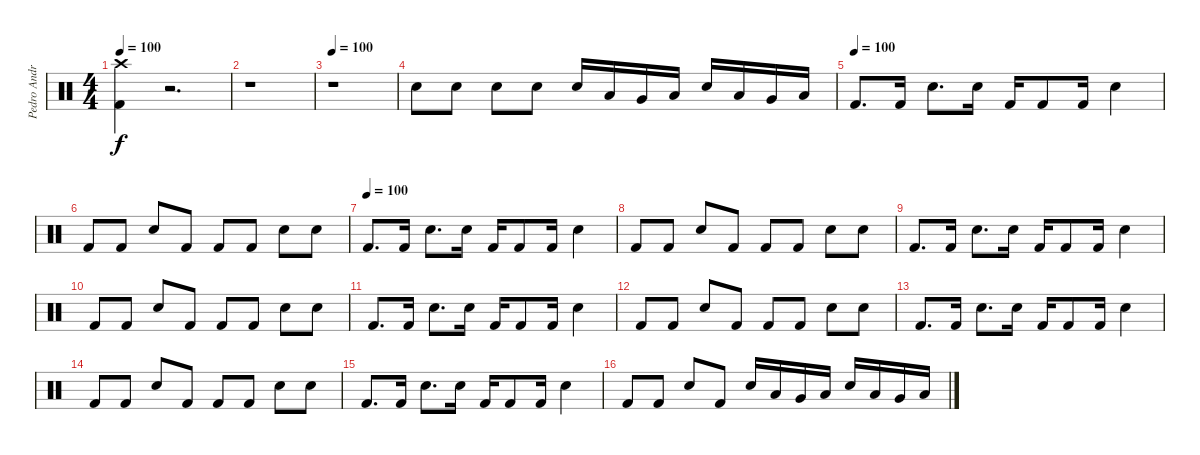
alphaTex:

\track ("Pedro Andreu" "Pedro Andr") {instrument percussion}
\staff {score}
\articulation defaults
\ts (4 4)
\tempo 100
\clef neutral
\ks c
("Crash high (hit)" "Kick (hit) 2").4{dy f} r.2{d} |
r.1 |
\tempo 100
r.1 |
"Snare (hit) 2".8 "Snare (hit) 2".8 "Snare (hit) 2".8 "Snare (hit) 2".8 "Snare (hit) 2".16 "Low Tom (hit)".16 "Very Low Tom (hit)".16 "Low Floor Tom (hit)".16 "Snare (hit) 2".16 "Low Tom (hit)".16 "Very Low Tom (hit)".16 "Low Floor Tom (hit)".16 |
\tempo (100)
"Kick (hit) 2".8{d} "Kick (hit) 2".16 "Snare (hit) 2".8{d} "Snare (hit) 2".16 "Kick (hit) 2".16 "Kick (hit) 2".8 "Kick (hit) 2".16 "Snare (hit) 2".4 |
"Kick (hit) 2".8 "Kick (hit) 2".8 "Snare (hit) 2".8 "Kick (hit) 2".8 "Kick (hit) 2".8 "Kick (hit) 2".8 "Snare (hit) 2".8 "Snare (hit) 2".8 |
\tempo (100)
"Kick (hit) 2".8{d} "Kick (hit) 2".16 "Snare (hit) 2".8{d} "Snare (hit) 2".16 "Kick (hit) 2".16 "Kick (hit) 2".8 "Kick (hit) 2".16 "Snare (hit) 2".4 |
"Kick (hit) 2".8 "Kick (hit) 2".8 "Snare (hit) 2".8 "Kick (hit) 2".8 "Kick (hit) 2".8 "Kick (hit) 2".8 "Snare (hit) 2".8 "Snare (hit) 2".8 |
"Kick (hit) 2".8{d} "Kick (hit) 2".16 "Snare (hit) 2".8{d} "Snare (hit) 2".16 "Kick (hit) 2".16 "Kick (hit) 2".8 "Kick (hit) 2".16 "Snare (hit) 2".4 |
"Kick (hit) 2".8 "Kick (hit) 2".8 "Snare (hit) 2".8 "Kick (hit) 2".8 "Kick (hit) 2".8 "Kick (hit) 2".8 "Snare (hit) 2".8 "Snare (hit) 2".8 |
"Kick (hit) 2".8{d} "Kick (hit) 2".16 "Snare (hit) 2".8{d} "Snare (hit) 2".16 "Kick (hit) 2".16 "Kick (hit) 2".8 "Kick (hit) 2".16 "Snare (hit) 2".4 |
"Kick (hit) 2".8 "Kick (hit) 2".8 "Snare (hit) 2".8 "Kick (hit) 2".8 "Kick (hit) 2".8 "Kick (hit) 2".8 "Snare (hit) 2".8 "Snare (hit) 2".8 |
"Kick (hit) 2".8{d} "Kick (hit) 2".16 "Snare (hit) 2".8{d} "Snare (hit) 2".16 "Kick (hit) 2".16 "Kick (hit) 2".8 "Kick (hit) 2".16 "Snare (hit) 2".4 |
"Kick (hit) 2".8 "Kick (hit) 2".8 "Snare (hit) 2".8 "Kick (hit) 2".8 "Kick (hit) 2".8 "Kick (hit) 2".8 "Snare (hit) 2".8 "Snare (hit) 2".8 |
"Kick (hit) 2".8{d} "Kick (hit) 2".16 "Snare (hit) 2".8{d} "Snare (hit) 2".16 "Kick (hit) 2".16 "Kick (hit) 2".8 "Kick (hit) 2".16 "Snare (hit) 2".4 |
"Kick (hit) 2".8 "Kick (hit) 2".8 "Snare (hit) 2".8 "Kick (hit) 2".8 "Snare (hit) 2".16 "Low Tom (hit)".16 "Very Low Tom (hit)".16 "Low Floor Tom (hit)".16 "Snare (hit) 2".16 "Low Tom (hit)".16 "Very Low Tom (hit)".16 "Low Floor Tom (hit)".16
